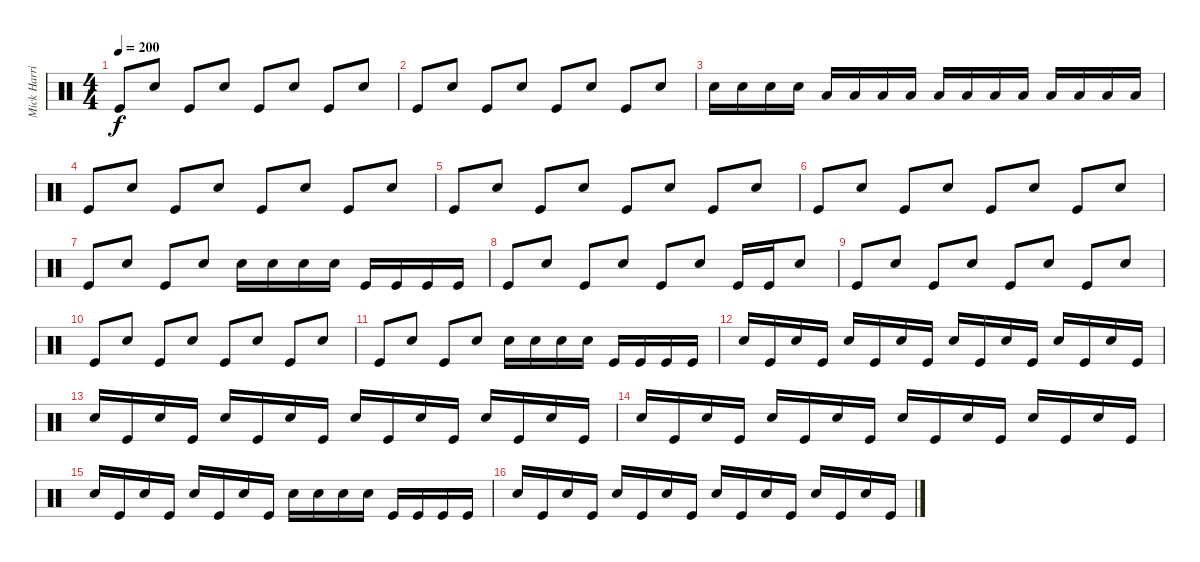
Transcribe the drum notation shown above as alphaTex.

\track ("Mick Harris" "Mick Harri") {instrument percussion}
\staff {score}
\articulation defaults
\ts (4 4)
\tempo 200
\clef neutral
\ks c "Kick (hit)".8{dy f} "Snare (hit) 2".8 "Kick (hit)".8 "Snare (hit) 2".8 "Kick (hit)".8 "Snare (hit) 2".8 "Kick (hit)".8 "Snare (hit) 2".8
|
"Kick (hit)".8 "Snare (hit) 2".8 "Kick (hit)".8 "Snare (hit) 2".8 "Kick (hit)".8 "Snare (hit) 2".8 "Kick (hit)".8 "Snare (hit) 2".8 |
"Snare (hit) 2".16 "Snare (hit) 2".16 "Snare (hit) 2".16 "Snare (hit) 2".16 "Low Tom (hit)".16 "Low Tom (hit)".16 "Low Tom (hit)".16 "Low Tom (hit)".16 "Low Tom (hit)".16 "Low Tom (hit)".16 "Low Tom (hit)".16 "Low Tom (hit)".16 "Low Tom (hit)".16 "Low Tom (hit)".16 "Low Tom (hit)".16 "Low Tom (hit)".16 |
"Kick (hit)".8 "Snare (hit) 2".8 "Kick (hit)".8 "Snare (hit) 2".8 "Kick (hit)".8 "Snare (hit) 2".8 "Kick (hit)".8 "Snare (hit) 2".8 |
"Kick (hit)".8 "Snare (hit) 2".8 "Kick (hit)".8 "Snare (hit) 2".8 "Kick (hit)".8 "Snare (hit) 2".8 "Kick (hit)".8 "Snare (hit) 2".8 |
"Kick (hit)".8 "Snare (hit) 2".8 "Kick (hit)".8 "Snare (hit) 2".8 "Kick (hit)".8 "Snare (hit) 2".8 "Kick (hit)".8 "Snare (hit) 2".8 |
"Kick (hit)".8 "Snare (hit) 2".8 "Kick (hit)".8 "Snare (hit) 2".8 "Snare (hit) 2".16 "Snare (hit) 2".16 "Snare (hit) 2".16 "Snare (hit) 2".16 "Kick (hit)".16 "Kick (hit)".16 "Kick (hit)".16 "Kick (hit)".16 |
"Kick (hit)".8 "Snare (hit) 2".8 "Kick (hit)".8 "Snare (hit) 2".8 "Kick (hit)".8 "Snare (hit) 2".8 "Kick (hit)".16 "Kick (hit)".16 "Snare (hit) 2".8 |
"Kick (hit)".8 "Snare (hit) 2".8 "Kick (hit)".8 "Snare (hit) 2".8 "Kick (hit)".8 "Snare (hit) 2".8 "Kick (hit)".8 "Snare (hit) 2".8 |
"Kick (hit)".8 "Snare (hit) 2".8 "Kick (hit)".8 "Snare (hit) 2".8 "Kick (hit)".8 "Snare (hit) 2".8 "Kick (hit)".8 "Snare (hit) 2".8 |
"Kick (hit)".8 "Snare (hit) 2".8 "Kick (hit)".8 "Snare (hit) 2".8 "Snare (hit) 2".16 "Snare (hit) 2".16 "Snare (hit) 2".16 "Snare (hit) 2".16 "Kick (hit)".16 "Kick (hit)".16 "Kick (hit)".16 "Kick (hit)".16 |
"Snare (hit) 2".16 "Kick (hit)".16 "Snare (hit) 2".16 "Kick (hit)".16 "Snare (hit) 2".16 "Kick (hit)".16 "Snare (hit) 2".16 "Kick (hit)".16 "Snare (hit) 2".16 "Kick (hit)".16 "Snare (hit) 2".16 "Kick (hit)".16 "Snare (hit) 2".16 "Kick (hit)".16 "Snare (hit) 2".16 "Kick (hit)".16 |
"Snare (hit) 2".16 "Kick (hit)".16 "Snare (hit) 2".16 "Kick (hit)".16 "Snare (hit) 2".16 "Kick (hit)".16 "Snare (hit) 2".16 "Kick (hit)".16 "Snare (hit) 2".16 "Kick (hit)".16 "Snare (hit) 2".16 "Kick (hit)".16 "Snare (hit) 2".16 "Kick (hit)".16 "Snare (hit) 2".16 "Kick (hit)".16 |
"Snare (hit) 2".16 "Kick (hit)".16 "Snare (hit) 2".16 "Kick (hit)".16 "Snare (hit) 2".16 "Kick (hit)".16 "Snare (hit) 2".16 "Kick (hit)".16 "Snare (hit) 2".16 "Kick (hit)".16 "Snare (hit) 2".16 "Kick (hit)".16 "Snare (hit) 2".16 "Kick (hit)".16 "Snare (hit) 2".16 "Kick (hit)".16 |
"Snare (hit) 2".16 "Kick (hit)".16 "Snare (hit) 2".16 "Kick (hit)".16 "Snare (hit) 2".16 "Kick (hit)".16 "Snare (hit) 2".16 "Kick (hit)".16 "Snare (hit) 2".16 "Snare (hit) 2".16 "Snare (hit) 2".16 "Snare (hit) 2".16 "Kick (hit)".16 "Kick (hit)".16 "Kick (hit)".16 "Kick (hit)".16 |
"Snare (hit) 2".16 "Kick (hit)".16 "Snare (hit) 2".16 "Kick (hit)".16 "Snare (hit) 2".16 "Kick (hit)".16 "Snare (hit) 2".16 "Kick (hit)".16 "Snare (hit) 2".16 "Kick (hit)".16 "Snare (hit) 2".16 "Kick (hit)".16 "Snare (hit) 2".16 "Kick (hit)".16 "Snare (hit) 2".16 "Kick (hit)".16
